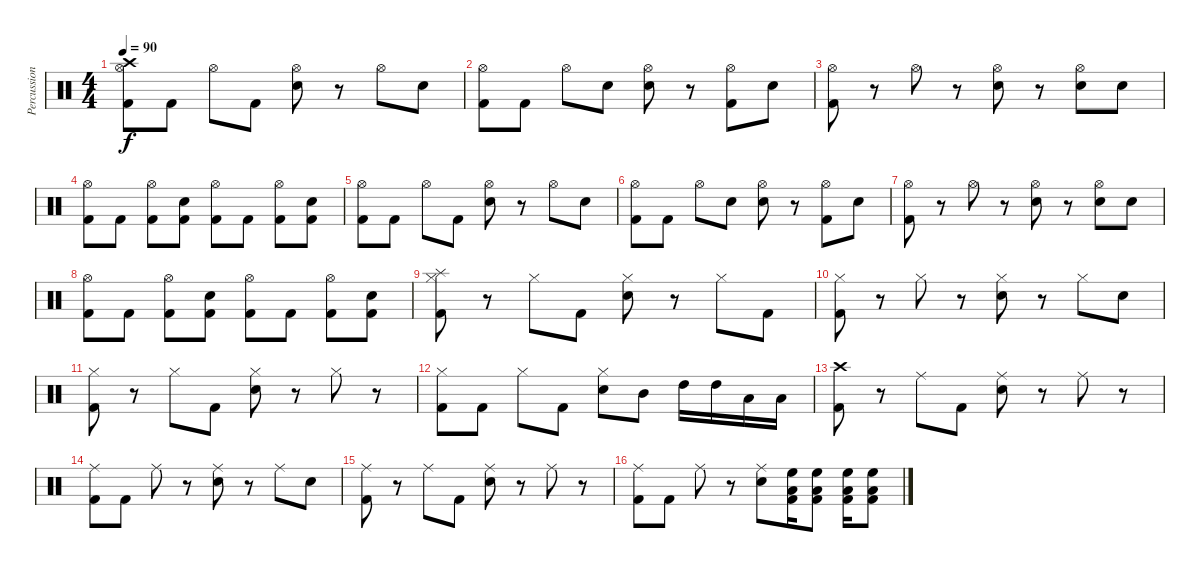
\track ("Percussion" "Percussion") {instrument percussion}
\staff {score}
\articulation defaults
\ts (4 4)
\tempo 90
\clef neutral
\ks c
("Kick (hit) 2" "Hi-Hat (open)" "Crash high (hit)").8{dy f} "Kick (hit) 2".8 "Hi-Hat (open)".8 "Kick (hit) 2".8 ("Snare (hit) 2" "Hi-Hat (open)").8 r.8 "Hi-Hat (open)".8 "Snare (hit) 2".8 |
("Kick (hit) 2" "Hi-Hat (open)").8 "Kick (hit) 2".8 "Hi-Hat (open)".8 "Snare (hit) 2".8 ("Snare (hit) 2" "Hi-Hat (open)").8 r.8 ("Kick (hit) 2" "Hi-Hat (open)").8 "Snare (hit) 2".8 |
("Kick (hit) 2" "Hi-Hat (open)").8 r.8 "Hi-Hat (open)".8 r.8 ("Snare (hit) 2" "Hi-Hat (open)").8 r.8 ("Snare (hit) 2" "Hi-Hat (open)").8 "Snare (hit) 2".8 |
("Kick (hit) 2" "Hi-Hat (open)").8 "Kick (hit) 2".8 ("Kick (hit) 2" "Hi-Hat (open)").8 ("Kick (hit) 2" "Snare (hit) 2").8 ("Kick (hit) 2" "Hi-Hat (open)").8 "Kick (hit) 2".8 ("Kick (hit) 2" "Hi-Hat (open)").8 ("Kick (hit) 2" "Snare (hit) 2").8 |
("Kick (hit) 2" "Hi-Hat (open)").8 "Kick (hit) 2".8 "Hi-Hat (open)".8 "Kick (hit) 2".8 ("Snare (hit) 2" "Hi-Hat (open)").8 r.8 "Hi-Hat (open)".8 "Snare (hit) 2".8 |
("Kick (hit) 2" "Hi-Hat (open)").8 "Kick (hit) 2".8 "Hi-Hat (open)".8 "Snare (hit) 2".8 ("Snare (hit) 2" "Hi-Hat (open)").8 r.8 ("Kick (hit) 2" "Hi-Hat (open)").8 "Snare (hit) 2".8 |
("Kick (hit) 2" "Hi-Hat (open)").8 r.8 "Hi-Hat (open)".8 r.8 ("Snare (hit) 2" "Hi-Hat (open)").8 r.8 ("Snare (hit) 2" "Hi-Hat (open)").8 "Snare (hit) 2".8 |
("Kick (hit) 2" "Hi-Hat (open)").8 "Kick (hit) 2".8 ("Kick (hit) 2" "Hi-Hat (open)").8 ("Kick (hit) 2" "Snare (hit) 2").8 ("Kick (hit) 2" "Hi-Hat (open)").8 "Kick (hit) 2".8 ("Kick (hit) 2" "Hi-Hat (open)").8 ("Kick (hit) 2" "Snare (hit) 2").8 |
("Kick (hit) 2" "Hi-Hat (closed)" "Splash (hit)").8 r.8 "Hi-Hat (closed)".8 "Kick (hit) 2".8 ("Snare (hit) 2" "Hi-Hat (closed)").8 r.8 "Hi-Hat (closed)".8 "Kick (hit) 2".8 |
("Kick (hit) 2" "Hi-Hat (closed)").8 r.8 "Hi-Hat (closed)".8 r.8 ("Snare (hit) 2" "Hi-Hat (closed)").8 r.8 "Hi-Hat (closed)".8 "Snare (hit) 2".8 |
("Kick (hit) 2" "Hi-Hat (closed)").8 r.8 "Hi-Hat (closed)".8 "Kick (hit) 2".8 ("Snare (hit) 2" "Hi-Hat (closed)").8 r.8 "Hi-Hat (closed)".8 r.8 |
("Kick (hit) 2" "Hi-Hat (closed)").8 "Kick (hit) 2".8 "Hi-Hat (closed)".8 "Kick (hit) 2".8 ("Snare (hit) 2" "Hi-Hat (closed)").8 "Mid Tom (hit)".8 "High Tom (hit)".16 "High Tom (hit)".16 "Low Tom (hit)".16 "Low Tom (hit)"{x}.16 |
("Kick (hit) 2" "Crash high (hit)").8 r.8 "Ride (middle)".8 "Kick (hit) 2".8 ("Snare (hit) 2" "Ride (middle)").8 r.8 "Ride (middle)".8 r.8 |
("Kick (hit) 2" "Ride (middle)").8 "Kick (hit) 2".8 "Ride (middle)".8 r.8 ("Snare (hit) 2" "Ride (middle)").8 r.8 "Ride (middle)".8 "Snare (hit) 2".8 |
("Kick (hit) 2" "Ride (middle)").8 r.8 "Ride (middle)".8 "Kick (hit) 2".8 ("Snare (hit) 2" "Ride (middle)").8 r.8 "Ride (middle)".8 r.8 |
("Kick (hit) 2" "Ride (middle)").8 "Kick (hit) 2".8 "Ride (middle)".8 r.8 ("Snare (hit) 2" "Ride (middle)").8 ("Kick (hit) 2" "Low Tom (hit)" "High Floor Tom (hit)").16 ("Kick (hit) 2" "Low Tom (hit)" "High Floor Tom (hit)").8 ("Low Tom (hit)" "High Floor Tom (hit)" "Kick (hit) 2").16 ("Low Tom (hit)" "High Floor Tom (hit)" "Kick (hit) 2").8
